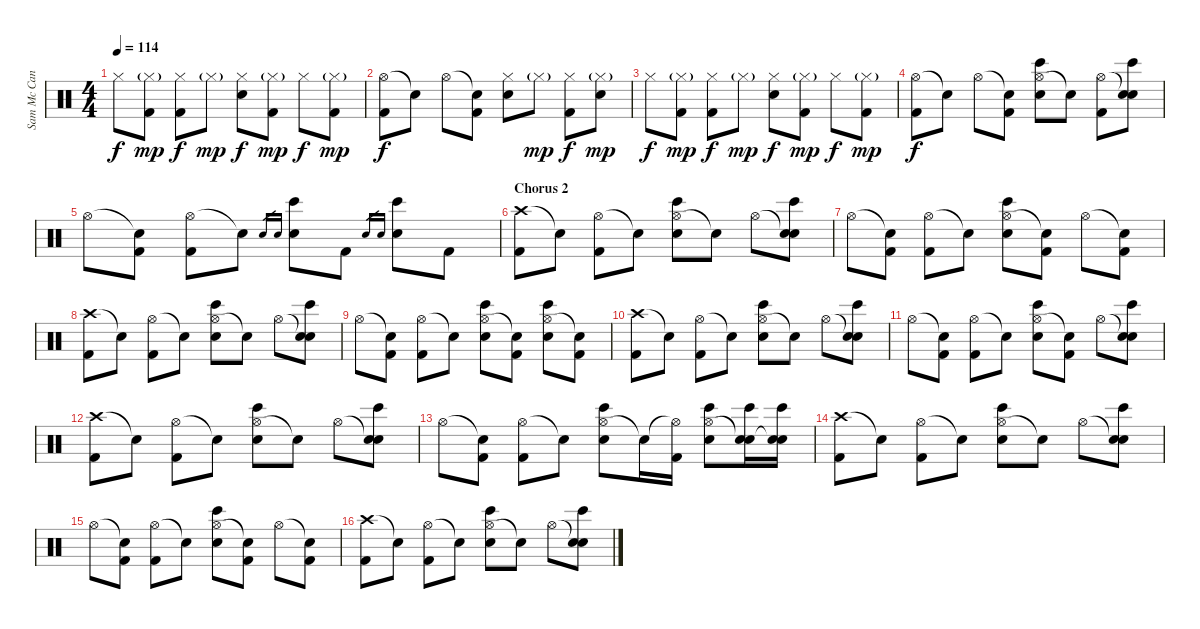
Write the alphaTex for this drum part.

\track ("Sam Mc Candless (Drums)" "Sam Mc Can") {instrument percussion}
\staff {score}
\articulation defaults
\ts (4 4)
\tempo 114
\clef neutral
\ks c "Hi-Hat (closed)".8{dy f}
("Hi-Hat (closed)"{g} "Kick (hit) 2").8{dy mp} ("Hi-Hat (closed)" "Kick (hit) 2").8{dy f} "Hi-Hat (closed)"{g}.8{dy mp} ("Hi-Hat (closed)" "Electric Snare (hit)").8{dy f} ("Hi-Hat (closed)"{g} "Kick (hit) 2").8{dy mp} "Hi-Hat (closed)".8{dy f} ("Hi-Hat (closed)"{g} "Kick (hit) 2").8{dy mp} |
("Hi-Hat (open)" "Kick (hit) 2").8{dy f} "Snare (hit)"{t}.8 "Hi-Hat (open)".8 ("Snare (hit)"{t} "Kick (hit) 2").8 ("Hi-Hat (closed)" "Electric Snare (hit)").8 "Hi-Hat (closed)"{g}.8{dy mp} ("Hi-Hat (closed)" "Kick (hit) 2").8{dy f} ("Hi-Hat (closed)"{g} "Electric Snare (hit)").8{dy mp} |
"Hi-Hat (closed)".8{dy f} ("Hi-Hat (closed)"{g} "Kick (hit) 2").8{dy mp} ("Hi-Hat (closed)" "Kick (hit) 2").8{dy f} "Hi-Hat (closed)"{g}.8{dy mp} ("Hi-Hat (closed)" "Electric Snare (hit)").8{dy f} ("Hi-Hat (closed)"{g} "Kick (hit) 2").8{dy mp} "Hi-Hat (closed)".8{dy f} ("Hi-Hat (closed)"{g} "Kick (hit) 2").8{dy mp} |
("Hi-Hat (open)" "Kick (hit) 2").8{dy f} "Snare (hit)"{t}.8 "Hi-Hat (open)".8 ("Snare (hit)"{t} "Kick (hit) 2").8 ("Hi-Hat (open)" "Electric Snare (hit)" "Bongo High (hit)").8 "Snare (hit)"{t}.8 ("Hi-Hat (open)" "Kick (hit) 2").8 ("Snare (hit)"{t} "Electric Snare (hit)" "Bongo High (hit)").8 |
"Hi-Hat (open)".8 ("Snare (hit)"{t} "Kick (hit) 2").8 ("Hi-Hat (open)" "Kick (hit) 2").8 "Snare (hit)"{t}.8 "Electric Snare (hit)".16{gr} "Snare (hit)".16{gr} ("Electric Snare (hit)" "Bongo High (hit)").8 "Kick (hit) 2".8 "Electric Snare (hit)".16{gr} "Snare (hit)".16{gr} ("Electric Snare (hit)" "Bongo High (hit)").8 "Kick (hit) 2".8 |
\section ("" "Chorus 2")
("Crash high (hit)" "Kick (hit) 2").8 "Snare (hit)"{t}.8 ("Hi-Hat (open)" "Kick (hit) 2").8 "Snare (hit)"{t}.8 ("Hi-Hat (open)" "Electric Snare (hit)" "Bongo High (hit)").8 "Snare (hit)"{t}.8 "Hi-Hat (open)".8 ("Snare (hit)"{t} "Electric Snare (hit)" "Bongo High (hit)").8 |
"Hi-Hat (open)".8 ("Snare (hit)"{t} "Kick (hit) 2").8 ("Hi-Hat (open)" "Kick (hit) 2").8 "Snare (hit)"{t}.8 ("Hi-Hat (open)" "Electric Snare (hit)" "Bongo High (hit)").8 ("Snare (hit)"{t} "Kick (hit) 2").8 "Hi-Hat (open)".8 ("Snare (hit)"{t} "Kick (hit) 2").8 |
("Crash high (hit)" "Kick (hit) 2").8 "Snare (hit)"{t}.8 ("Hi-Hat (open)" "Kick (hit) 2").8 "Snare (hit)"{t}.8 ("Hi-Hat (open)" "Electric Snare (hit)" "Bongo High (hit)").8 "Snare (hit)"{t}.8 "Hi-Hat (open)".8 ("Snare (hit)"{t} "Electric Snare (hit)" "Bongo High (hit)").8 |
"Hi-Hat (open)".8 ("Snare (hit)"{t} "Kick (hit) 2").8 ("Hi-Hat (open)" "Kick (hit) 2").8 "Snare (hit)"{t}.8 ("Hi-Hat (open)" "Electric Snare (hit)" "Bongo High (hit)").8 ("Snare (hit)"{t} "Kick (hit) 2").8 ("Hi-Hat (open)" "Electric Snare (hit)" "Bongo High (hit)").8 ("Snare (hit)"{t} "Kick (hit) 2").8 |
("Crash high (hit)" "Kick (hit) 2").8 "Snare (hit)"{t}.8 ("Hi-Hat (open)" "Kick (hit) 2").8 "Snare (hit)"{t}.8 ("Hi-Hat (open)" "Electric Snare (hit)" "Bongo High (hit)").8 "Snare (hit)"{t}.8 "Hi-Hat (open)".8 ("Snare (hit)"{t} "Electric Snare (hit)" "Bongo High (hit)").8 |
"Hi-Hat (open)".8 ("Snare (hit)"{t} "Kick (hit) 2").8 ("Hi-Hat (open)" "Kick (hit) 2").8 "Snare (hit)"{t}.8 ("Hi-Hat (open)" "Electric Snare (hit)" "Bongo High (hit)").8 ("Snare (hit)"{t} "Kick (hit) 2").8 "Hi-Hat (open)".8 ("Snare (hit)"{t} "Electric Snare (hit)" "Bongo High (hit)").8 |
("Crash high (hit)" "Kick (hit) 2").8 "Snare (hit)"{t}.8 ("Hi-Hat (open)" "Kick (hit) 2").8 "Snare (hit)"{t}.8 ("Hi-Hat (open)" "Electric Snare (hit)" "Bongo High (hit)").8 "Snare (hit)"{t}.8 "Hi-Hat (open)".8 ("Snare (hit)"{t} "Electric Snare (hit)" "Bongo High (hit)").8 |
"Hi-Hat (open)".8 ("Snare (hit)"{t} "Kick (hit) 2").8 ("Hi-Hat (open)" "Kick (hit) 2").8 "Snare (hit)"{t}.8 ("Hi-Hat (open)" "Electric Snare (hit)" "Bongo High (hit)").8 "Snare (hit)"{t}.16 ("Hi-Hat (open)"{t} "Kick (hit) 2").16 ("Hi-Hat (open)" "Electric Snare (hit)" "Bongo High (hit)").8 ("Snare (hit)"{t} "Electric Snare (hit)" "Bongo High (hit)").16 ("Snare (hit)"{t} "Electric Snare (hit)" "Bongo High (hit)").16 |
("Crash high (hit)" "Kick (hit) 2").8 "Snare (hit)"{t}.8 ("Hi-Hat (open)" "Kick (hit) 2").8 "Snare (hit)"{t}.8 ("Hi-Hat (open)" "Electric Snare (hit)" "Bongo High (hit)").8 "Snare (hit)"{t}.8 "Hi-Hat (open)".8 ("Snare (hit)"{t} "Electric Snare (hit)" "Bongo High (hit)").8 |
"Hi-Hat (open)".8 ("Snare (hit)"{t} "Kick (hit) 2").8 ("Hi-Hat (open)" "Kick (hit) 2").8 "Snare (hit)"{t}.8 ("Hi-Hat (open)" "Electric Snare (hit)" "Bongo High (hit)").8 ("Snare (hit)"{t} "Kick (hit) 2").8 "Hi-Hat (open)".8 ("Snare (hit)"{t} "Kick (hit) 2").8 |
("Crash high (hit)" "Kick (hit) 2").8 "Snare (hit)"{t}.8 ("Hi-Hat (open)" "Kick (hit) 2").8 "Snare (hit)"{t}.8 ("Hi-Hat (open)" "Electric Snare (hit)" "Bongo High (hit)").8 "Snare (hit)"{t}.8 "Hi-Hat (open)".8 ("Snare (hit)"{t} "Electric Snare (hit)" "Bongo High (hit)").8
